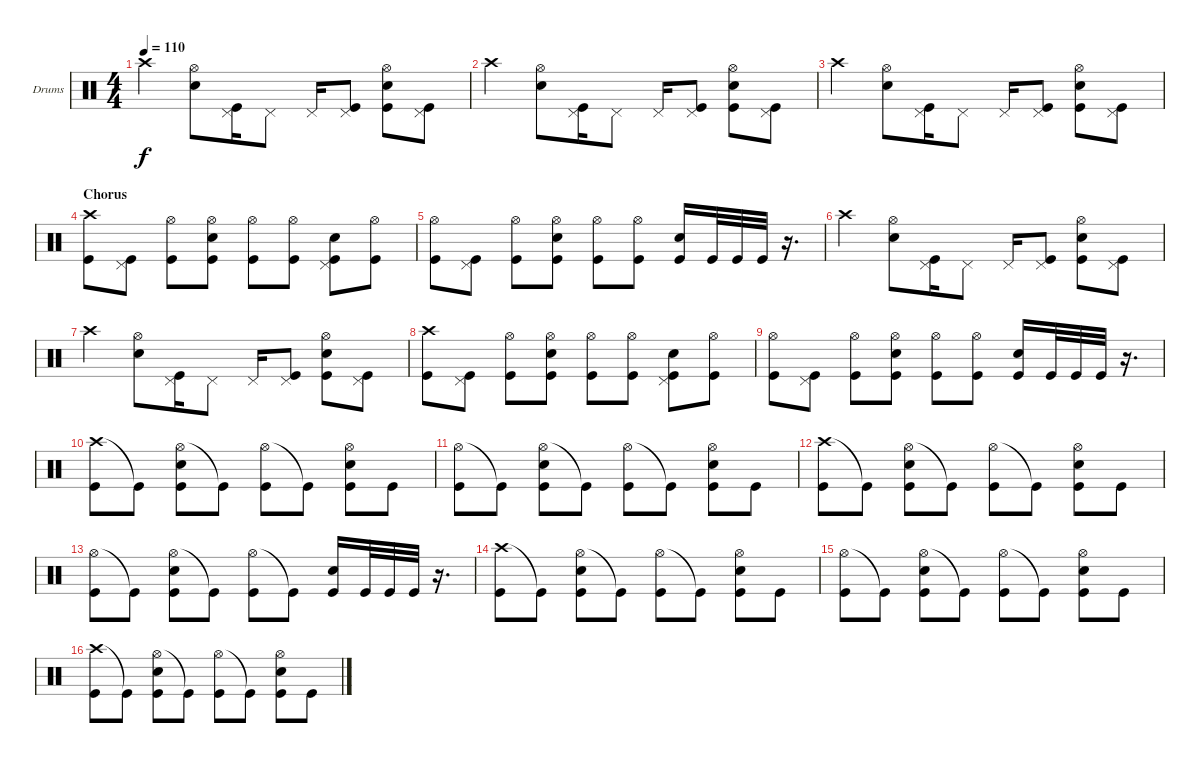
\bracketExtendMode groupsimilarinstruments
\firstSystemTrackNameOrientation horizontal
\otherSystemsTrackNameOrientation horizontal
\track ("Drumkit" "Drums") {instrument percussion}
\staff {score}
\articulation defaults
\ts (4 4)
\tempo 110
\clef neutral
\ks c "Crash high (hit)".4{dy f}
("Hi-Hat (open)" "Snare (hit) 2").8 ("Pedal Hi-Hat (hit)" "Kick (hit)").16 "Pedal Hi-Hat (hit)".8 "Pedal Hi-Hat (hit)".16 ("Pedal Hi-Hat (hit)" "Kick (hit)").8 ("Hi-Hat (open)" "Snare (hit) 2" "Kick (hit)").8 ("Pedal Hi-Hat (hit)" "Kick (hit)").8 |
"Crash high (hit)".4 ("Hi-Hat (open)" "Snare (hit) 2").8 ("Pedal Hi-Hat (hit)" "Kick (hit)").16 "Pedal Hi-Hat (hit)".8 "Pedal Hi-Hat (hit)".16 ("Pedal Hi-Hat (hit)" "Kick (hit)").8 ("Hi-Hat (open)" "Snare (hit) 2" "Kick (hit)").8 ("Pedal Hi-Hat (hit)" "Kick (hit)").8 |
"Crash high (hit)".4 ("Hi-Hat (open)" "Snare (hit) 2").8 ("Pedal Hi-Hat (hit)" "Kick (hit)").16 "Pedal Hi-Hat (hit)".8 "Pedal Hi-Hat (hit)".16 ("Pedal Hi-Hat (hit)" "Kick (hit)").8 ("Hi-Hat (open)" "Snare (hit) 2" "Kick (hit)").8 ("Pedal Hi-Hat (hit)" "Kick (hit)").8 |
\section ("" "Chorus")
("Crash high (hit)" "Kick (hit)").8 ("Pedal Hi-Hat (hit)" "Kick (hit)").8 ("Hi-Hat (open)" "Kick (hit)").8 ("Hi-Hat (open)" "Snare (hit) 2" "Kick (hit)").8 ("Hi-Hat (open)" "Kick (hit)").8 ("Hi-Hat (open)" "Kick (hit)").8 ("Pedal Hi-Hat (hit)" "Snare (hit) 2" "Kick (hit)").8 ("Hi-Hat (open)" "Kick (hit)").8 |
("Hi-Hat (open)" "Kick (hit)").8 ("Pedal Hi-Hat (hit)" "Kick (hit)").8 ("Hi-Hat (open)" "Kick (hit)").8 ("Hi-Hat (open)" "Snare (hit) 2" "Kick (hit)").8 ("Hi-Hat (open)" "Kick (hit)").8 ("Hi-Hat (open)" "Kick (hit)").8 ("Snare (hit) 2" "Kick (hit)").16 "Kick (hit)".32 "Kick (hit)".32 "Kick (hit)".32 r.16{d} |
"Crash high (hit)".4 ("Hi-Hat (open)" "Snare (hit) 2").8 ("Pedal Hi-Hat (hit)" "Kick (hit)").16 "Pedal Hi-Hat (hit)".8 "Pedal Hi-Hat (hit)".16 ("Pedal Hi-Hat (hit)" "Kick (hit)").8 ("Hi-Hat (open)" "Snare (hit) 2" "Kick (hit)").8 ("Pedal Hi-Hat (hit)" "Kick (hit)").8 |
"Crash high (hit)".4 ("Hi-Hat (open)" "Snare (hit) 2").8 ("Pedal Hi-Hat (hit)" "Kick (hit)").16 "Pedal Hi-Hat (hit)".8 "Pedal Hi-Hat (hit)".16 ("Pedal Hi-Hat (hit)" "Kick (hit)").8 ("Hi-Hat (open)" "Snare (hit) 2" "Kick (hit)").8 ("Pedal Hi-Hat (hit)" "Kick (hit)").8 |
("Crash high (hit)" "Kick (hit)").8 ("Pedal Hi-Hat (hit)" "Kick (hit)").8 ("Hi-Hat (open)" "Kick (hit)").8 ("Hi-Hat (open)" "Snare (hit) 2" "Kick (hit)").8 ("Hi-Hat (open)" "Kick (hit)").8 ("Hi-Hat (open)" "Kick (hit)").8 ("Pedal Hi-Hat (hit)" "Snare (hit) 2" "Kick (hit)").8 ("Hi-Hat (open)" "Kick (hit)").8 |
("Hi-Hat (open)" "Kick (hit)").8 ("Pedal Hi-Hat (hit)" "Kick (hit)").8 ("Hi-Hat (open)" "Kick (hit)").8 ("Hi-Hat (open)" "Snare (hit) 2" "Kick (hit)").8 ("Hi-Hat (open)" "Kick (hit)").8 ("Hi-Hat (open)" "Kick (hit)").8 ("Snare (hit) 2" "Kick (hit)").16 "Kick (hit)".32 "Kick (hit)".32 "Kick (hit)".32 r.16{d} |
("Crash high (hit)" "Kick (hit)").8 "Kick (hit)"{t}.8 ("Hi-Hat (open)" "Snare (hit) 2" "Kick (hit)").8 "Kick (hit)"{t}.8 ("Hi-Hat (open)" "Kick (hit)").8 "Kick (hit)"{t}.8 ("Hi-Hat (open)" "Snare (hit) 2" "Kick (hit)").8 "Kick (hit)".8 |
("Hi-Hat (open)" "Kick (hit)").8 "Kick (hit)"{t}.8 ("Hi-Hat (open)" "Snare (hit) 2" "Kick (hit)").8 "Kick (hit)"{t}.8 ("Hi-Hat (open)" "Kick (hit)").8 "Kick (hit)"{t}.8 ("Hi-Hat (open)" "Snare (hit) 2" "Kick (hit)").8 "Kick (hit)".8 |
("Crash high (hit)" "Kick (hit)").8 "Kick (hit)"{t}.8 ("Hi-Hat (open)" "Snare (hit) 2" "Kick (hit)").8 "Kick (hit)"{t}.8 ("Hi-Hat (open)" "Kick (hit)").8 "Kick (hit)"{t}.8 ("Hi-Hat (open)" "Snare (hit) 2" "Kick (hit)").8 "Kick (hit)".8 |
("Hi-Hat (open)" "Kick (hit)").8 "Kick (hit)"{t}.8 ("Hi-Hat (open)" "Snare (hit) 2" "Kick (hit)").8 "Kick (hit)"{t}.8 ("Hi-Hat (open)" "Kick (hit)").8 "Kick (hit)"{t}.8 ("Snare (hit) 2" "Kick (hit)").16 "Kick (hit)".32 "Kick (hit)".32 "Kick (hit)".32 r.16{d} |
("Crash high (hit)" "Kick (hit)").8 "Kick (hit)"{t}.8 ("Hi-Hat (open)" "Snare (hit) 2" "Kick (hit)").8 "Kick (hit)"{t}.8 ("Hi-Hat (open)" "Kick (hit)").8 "Kick (hit)"{t}.8 ("Hi-Hat (open)" "Snare (hit) 2" "Kick (hit)").8 "Kick (hit)".8 |
("Hi-Hat (open)" "Kick (hit)").8 "Kick (hit)"{t}.8 ("Hi-Hat (open)" "Snare (hit) 2" "Kick (hit)").8 "Kick (hit)"{t}.8 ("Hi-Hat (open)" "Kick (hit)").8 "Kick (hit)"{t}.8 ("Hi-Hat (open)" "Snare (hit) 2" "Kick (hit)").8 "Kick (hit)".8 |
("Crash high (hit)" "Kick (hit)").8 "Kick (hit)"{t}.8 ("Hi-Hat (open)" "Snare (hit) 2" "Kick (hit)").8 "Kick (hit)"{t}.8 ("Hi-Hat (open)" "Kick (hit)").8 "Kick (hit)"{t}.8 ("Hi-Hat (open)" "Snare (hit) 2" "Kick (hit)").8 "Kick (hit)".8
